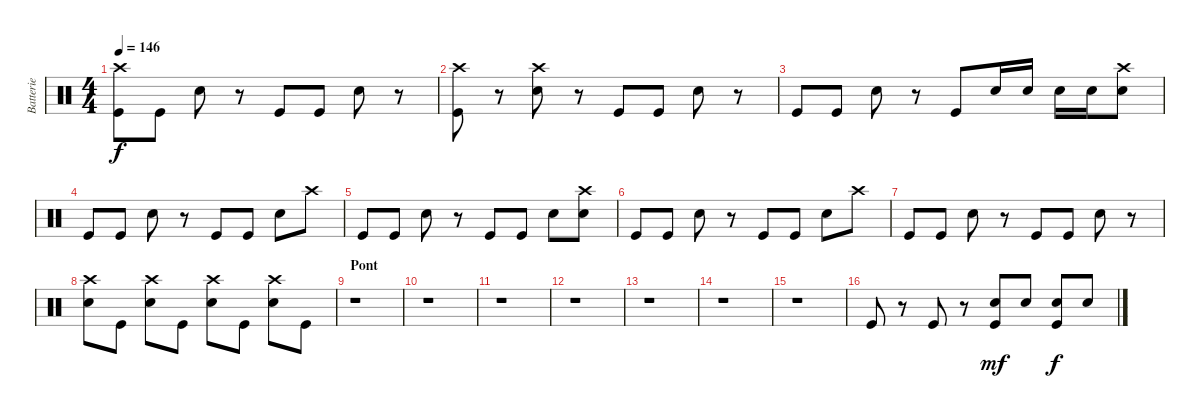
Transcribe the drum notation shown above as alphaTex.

\track ("Batterie" "Batterie") {instrument percussion}
\staff {score}
\articulation defaults
\ts (4 4)
\tempo 146
\clef neutral
\ks c
("Crash high (hit)" "Kick (hit)").8{dy f} "Kick (hit)".8 "Snare (hit) 2".8 r.8 "Kick (hit)".8 "Kick (hit)".8 "Snare (hit) 2".8 r.8 |
("Crash high (hit)" "Kick (hit)").8 r.8 ("Crash high (hit)" "Snare (hit) 2").8 r.8 "Kick (hit)".8 "Kick (hit)".8 "Snare (hit) 2".8 r.8 |
"Kick (hit)".8 "Kick (hit)".8 "Snare (hit) 2".8 r.8 "Kick (hit)".8 "Snare (hit) 2".16 "Snare (hit) 2".16 "Snare (hit) 2".16 "Snare (hit) 2".16 ("Crash high (hit)" "Snare (hit) 2").8 |
"Kick (hit)".8 "Kick (hit)".8 "Snare (hit) 2".8 r.8 "Kick (hit)".8 "Kick (hit)".8 "Snare (hit) 2".8 "Crash high (hit)".8 |
"Kick (hit)".8 "Kick (hit)".8 "Snare (hit) 2".8 r.8 "Kick (hit)".8 "Kick (hit)".8 "Snare (hit) 2".8 ("Crash high (hit)" "Snare (hit) 2").8 |
"Kick (hit)".8 "Kick (hit)".8 "Snare (hit) 2".8 r.8 "Kick (hit)".8 "Kick (hit)".8 "Snare (hit) 2".8 "Crash high (hit)".8 |
"Kick (hit)".8 "Kick (hit)".8 "Snare (hit) 2".8 r.8 "Kick (hit)".8 "Kick (hit)".8 "Snare (hit) 2".8 r.8 |
("Crash high (hit)" "Snare (hit) 2").8 "Kick (hit)".8 ("Crash high (hit)" "Snare (hit) 2").8 "Kick (hit)".8 ("Crash high (hit)" "Snare (hit) 2").8 "Kick (hit)".8 ("Crash high (hit)" "Snare (hit) 2").8 "Kick (hit)".8 |
\section ("" "Pont")
r.1 |
r.1 |
r.1 |
r.1 |
r.1 |
r.1 |
r.1 |
"Kick (hit)".8 r.8 "Kick (hit)".8 r.8 ("Snare (hit) 2" "Kick (hit)").8{dy mf} "Snare (hit) 2".8 ("Snare (hit) 2" "Kick (hit)").8{dy f} "Snare (hit) 2".8
